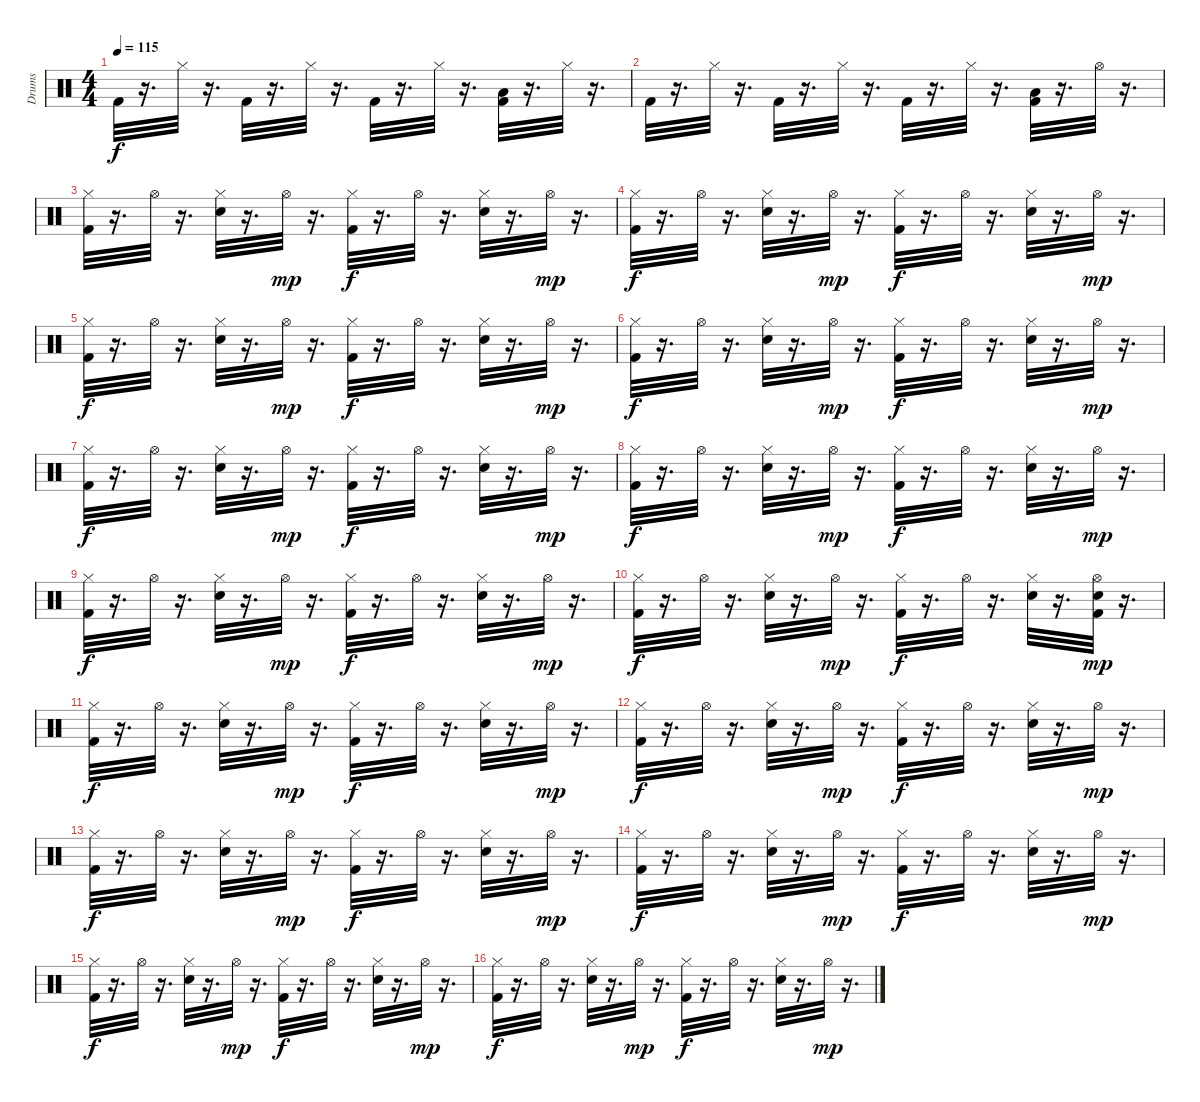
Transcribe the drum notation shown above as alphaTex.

\track ("Drums" "Drums") {instrument percussion}
\staff {score}
\articulation defaults
\ts (4 4)
\tempo 115
\clef neutral
\ks c "Kick (hit) 2".32{dy f}
r.16{d} "Hi-Hat (closed)".32 r.16{d} "Kick (hit) 2".32 r.16{d} "Hi-Hat (closed)".32 r.16{d} "Kick (hit) 2".32 r.16{d} "Hi-Hat (closed)".32 r.16{d} ("Low Tom (hit)" "Kick (hit) 2").32 r.16{d} "Hi-Hat (closed)".32 r.16{d} |
"Kick (hit) 2".32 r.16{d} "Hi-Hat (closed)".32 r.16{d} "Kick (hit) 2".32 r.16{d} "Hi-Hat (closed)".32 r.16{d} "Kick (hit) 2".32 r.16{d} "Hi-Hat (closed)".32 r.16{d} ("Low Tom (hit)" "Kick (hit) 2").32 r.16{d} "Hi-Hat (open)".32 r.16{d} |
("Hi-Hat (closed)" "Kick (hit) 2").32 r.16{d} "Hi-Hat (open)".32 r.16{d} ("Hi-Hat (closed)" "Snare (hit) 2").32 r.16{d} "Hi-Hat (open)".32{dy mp} r.16{d} ("Kick (hit) 2" "Hi-Hat (closed)").32{dy f} r.16{d} "Hi-Hat (open)".32 r.16{d} ("Hi-Hat (closed)" "Snare (hit) 2").32 r.16{d} "Hi-Hat (open)".32{dy mp} r.16{d} |
("Hi-Hat (closed)" "Kick (hit) 2").32{dy f} r.16{d} "Hi-Hat (open)".32 r.16{d} ("Hi-Hat (closed)" "Snare (hit) 2").32 r.16{d} "Hi-Hat (open)".32{dy mp} r.16{d} ("Kick (hit) 2" "Hi-Hat (closed)").32{dy f} r.16{d} "Hi-Hat (open)".32 r.16{d} ("Hi-Hat (closed)" "Snare (hit) 2").32 r.16{d} "Hi-Hat (open)".32{dy mp} r.16{d} |
("Hi-Hat (closed)" "Kick (hit) 2").32{dy f} r.16{d} "Hi-Hat (open)".32 r.16{d} ("Hi-Hat (closed)" "Snare (hit) 2").32 r.16{d} "Hi-Hat (open)".32{dy mp} r.16{d} ("Kick (hit) 2" "Hi-Hat (closed)").32{dy f} r.16{d} "Hi-Hat (open)".32 r.16{d} ("Hi-Hat (closed)" "Snare (hit) 2").32 r.16{d} "Hi-Hat (open)".32{dy mp} r.16{d} |
("Hi-Hat (closed)" "Kick (hit) 2").32{dy f} r.16{d} "Hi-Hat (open)".32 r.16{d} ("Hi-Hat (closed)" "Snare (hit) 2").32 r.16{d} "Hi-Hat (open)".32{dy mp} r.16{d} ("Kick (hit) 2" "Hi-Hat (closed)").32{dy f} r.16{d} "Hi-Hat (open)".32 r.16{d} ("Hi-Hat (closed)" "Snare (hit) 2").32 r.16{d} "Hi-Hat (open)".32{dy mp} r.16{d} |
("Hi-Hat (closed)" "Kick (hit) 2").32{dy f} r.16{d} "Hi-Hat (open)".32 r.16{d} ("Hi-Hat (closed)" "Snare (hit) 2").32 r.16{d} "Hi-Hat (open)".32{dy mp} r.16{d} ("Kick (hit) 2" "Hi-Hat (closed)").32{dy f} r.16{d} "Hi-Hat (open)".32 r.16{d} ("Hi-Hat (closed)" "Snare (hit) 2").32 r.16{d} "Hi-Hat (open)".32{dy mp} r.16{d} |
("Hi-Hat (closed)" "Kick (hit) 2").32{dy f} r.16{d} "Hi-Hat (open)".32 r.16{d} ("Hi-Hat (closed)" "Snare (hit) 2").32 r.16{d} "Hi-Hat (open)".32{dy mp} r.16{d} ("Kick (hit) 2" "Hi-Hat (closed)").32{dy f} r.16{d} "Hi-Hat (open)".32 r.16{d} ("Hi-Hat (closed)" "Snare (hit) 2").32 r.16{d} "Hi-Hat (open)".32{dy mp} r.16{d} |
("Hi-Hat (closed)" "Kick (hit) 2").32{dy f} r.16{d} "Hi-Hat (open)".32 r.16{d} ("Hi-Hat (closed)" "Snare (hit) 2").32 r.16{d} "Hi-Hat (open)".32{dy mp} r.16{d} ("Kick (hit) 2" "Hi-Hat (closed)").32{dy f} r.16{d} "Hi-Hat (open)".32 r.16{d} ("Hi-Hat (closed)" "Snare (hit) 2").32 r.16{d} "Hi-Hat (open)".32{dy mp} r.16{d} |
("Hi-Hat (closed)" "Kick (hit) 2").32{dy f} r.16{d} "Hi-Hat (open)".32 r.16{d} ("Hi-Hat (closed)" "Snare (hit) 2").32 r.16{d} "Hi-Hat (open)".32{dy mp} r.16{d} ("Kick (hit) 2" "Hi-Hat (closed)").32{dy f} r.16{d} "Hi-Hat (open)".32 r.16{d} ("Hi-Hat (closed)" "Snare (hit) 2").32 r.16{d} ("Kick (hit) 2" "Snare (hit) 2" "Hi-Hat (open)").32{dy mp} r.16{d} |
("Hi-Hat (closed)" "Kick (hit) 2").32{dy f} r.16{d} "Hi-Hat (open)".32 r.16{d} ("Hi-Hat (closed)" "Snare (hit) 2").32 r.16{d} "Hi-Hat (open)".32{dy mp} r.16{d} ("Kick (hit) 2" "Hi-Hat (closed)").32{dy f} r.16{d} "Hi-Hat (open)".32 r.16{d} ("Hi-Hat (closed)" "Snare (hit) 2").32 r.16{d} "Hi-Hat (open)".32{dy mp} r.16{d} |
("Hi-Hat (closed)" "Kick (hit) 2").32{dy f} r.16{d} "Hi-Hat (open)".32 r.16{d} ("Hi-Hat (closed)" "Snare (hit) 2").32 r.16{d} "Hi-Hat (open)".32{dy mp} r.16{d} ("Kick (hit) 2" "Hi-Hat (closed)").32{dy f} r.16{d} "Hi-Hat (open)".32 r.16{d} ("Hi-Hat (closed)" "Snare (hit) 2").32 r.16{d} "Hi-Hat (open)".32{dy mp} r.16{d} |
("Hi-Hat (closed)" "Kick (hit) 2").32{dy f} r.16{d} "Hi-Hat (open)".32 r.16{d} ("Hi-Hat (closed)" "Snare (hit) 2").32 r.16{d} "Hi-Hat (open)".32{dy mp} r.16{d} ("Kick (hit) 2" "Hi-Hat (closed)").32{dy f} r.16{d} "Hi-Hat (open)".32 r.16{d} ("Hi-Hat (closed)" "Snare (hit) 2").32 r.16{d} "Hi-Hat (open)".32{dy mp} r.16{d} |
("Hi-Hat (closed)" "Kick (hit) 2").32{dy f} r.16{d} "Hi-Hat (open)".32 r.16{d} ("Hi-Hat (closed)" "Snare (hit) 2").32 r.16{d} "Hi-Hat (open)".32{dy mp} r.16{d} ("Kick (hit) 2" "Hi-Hat (closed)").32{dy f} r.16{d} "Hi-Hat (open)".32 r.16{d} ("Hi-Hat (closed)" "Snare (hit) 2").32 r.16{d} "Hi-Hat (open)".32{dy mp} r.16{d} |
("Hi-Hat (closed)" "Kick (hit) 2").32{dy f} r.16{d} "Hi-Hat (open)".32 r.16{d} ("Hi-Hat (closed)" "Snare (hit) 2").32 r.16{d} "Hi-Hat (open)".32{dy mp} r.16{d} ("Kick (hit) 2" "Hi-Hat (closed)").32{dy f} r.16{d} "Hi-Hat (open)".32 r.16{d} ("Hi-Hat (closed)" "Snare (hit) 2").32 r.16{d} "Hi-Hat (open)".32{dy mp} r.16{d} |
("Hi-Hat (closed)" "Kick (hit) 2").32{dy f} r.16{d} "Hi-Hat (open)".32 r.16{d} ("Hi-Hat (closed)" "Snare (hit) 2").32 r.16{d} "Hi-Hat (open)".32{dy mp} r.16{d} ("Kick (hit) 2" "Hi-Hat (closed)").32{dy f} r.16{d} "Hi-Hat (open)".32 r.16{d} ("Hi-Hat (closed)" "Snare (hit) 2").32 r.16{d} "Hi-Hat (open)".32{dy mp} r.16{d}
